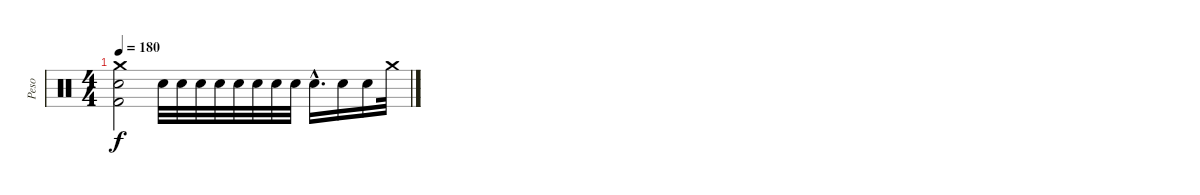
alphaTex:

\track ("Peso" "Peso") {instrument percussion}
\staff {score}
\articulation defaults
\ts (4 4)
\tempo 180
\clef neutral
\ks c
("Crash medium (hit)" "Electric Snare (hit)" "Kick (hit) 2").2{dy f} "Electric Snare (hit)".32 "Electric Snare (hit)".32 "Electric Snare (hit)".32 "Electric Snare (hit)".32 "Electric Snare (hit)".32 "Electric Snare (hit)".32 "Electric Snare (hit)".32 "Electric Snare (hit)".32 "Electric Snare (hit)"{hac}.16{d} "Electric Snare (hit)".16 "Electric Snare (hit)".16 "Crash medium (hit)".32
